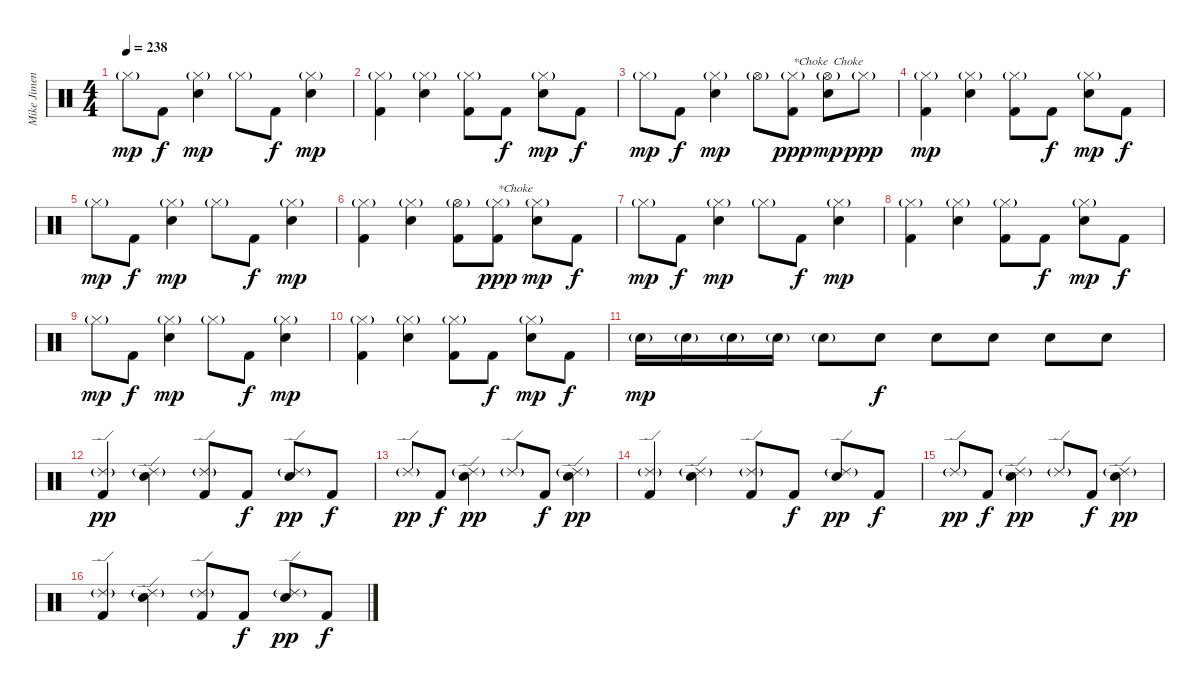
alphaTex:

\track ("Mike Jimenez" "Mike Jimen") {instrument percussion}
\staff {score}
\articulation defaults
\ts (4 4)
\tempo 238
\clef neutral
\ks c "Hi-Hat (closed)"{g}.8{dy mp} "Kick (hit) 2".8{dy f}
("Hi-Hat (closed)"{g} "Electric Snare (hit)").4{dy mp} "Hi-Hat (closed)"{g}.8 "Kick (hit) 2".8{dy f} ("Hi-Hat (closed)"{g} "Electric Snare (hit)").4{dy mp} |
("Hi-Hat (closed)"{g} "Kick (hit) 2").4 ("Hi-Hat (closed)"{g} "Electric Snare (hit)").4 ("Hi-Hat (closed)"{g} "Kick (hit) 2").8 "Kick (hit) 2".8{dy f} ("Hi-Hat (closed)"{g} "Electric Snare (hit)").8{dy mp} "Kick (hit) 2".8{dy f} |
"Hi-Hat (closed)"{g}.8{dy mp} "Kick (hit) 2".8{dy f} ("Hi-Hat (closed)"{g} "Electric Snare (hit)").4{dy mp} "Hi-Hat (open)"{g}.8 ("Hi-Hat (closed)"{g} "Kick (hit) 2").8{txt "*Choke  Choke" dy ppp} ("Hi-Hat (open)"{g} "Electric Snare (hit)").8{dy mp} "Hi-Hat (closed)"{g}.8{dy ppp} |
("Hi-Hat (closed)"{g} "Kick (hit) 2").4{dy mp} ("Hi-Hat (closed)"{g} "Electric Snare (hit)").4 ("Hi-Hat (closed)"{g} "Kick (hit) 2").8 "Kick (hit) 2".8{dy f} ("Hi-Hat (closed)"{g} "Electric Snare (hit)").8{dy mp} "Kick (hit) 2".8{dy f} |
"Hi-Hat (closed)"{g}.8{dy mp} "Kick (hit) 2".8{dy f} ("Hi-Hat (closed)"{g} "Electric Snare (hit)").4{dy mp} "Hi-Hat (closed)"{g}.8 "Kick (hit) 2".8{dy f} ("Hi-Hat (closed)"{g} "Electric Snare (hit)").4{dy mp} |
("Hi-Hat (closed)"{g} "Kick (hit) 2").4 ("Hi-Hat (closed)"{g} "Electric Snare (hit)").4 ("Hi-Hat (open)"{g} "Kick (hit) 2").8 ("Hi-Hat (closed)"{g} "Kick (hit) 2").8{txt "*Choke" dy ppp} ("Hi-Hat (closed)"{g} "Electric Snare (hit)").8{dy mp} "Kick (hit) 2".8{dy f} |
"Hi-Hat (closed)"{g}.8{dy mp} "Kick (hit) 2".8{dy f} ("Hi-Hat (closed)"{g} "Electric Snare (hit)").4{dy mp} "Hi-Hat (closed)"{g}.8 "Kick (hit) 2".8{dy f} ("Hi-Hat (closed)"{g} "Electric Snare (hit)").4{dy mp} |
("Hi-Hat (closed)"{g} "Kick (hit) 2").4 ("Hi-Hat (closed)"{g} "Electric Snare (hit)").4 ("Hi-Hat (closed)"{g} "Kick (hit) 2").8 "Kick (hit) 2".8{dy f} ("Hi-Hat (closed)"{g} "Electric Snare (hit)").8{dy mp} "Kick (hit) 2".8{dy f} |
"Hi-Hat (closed)"{g}.8{dy mp} "Kick (hit) 2".8{dy f} ("Hi-Hat (closed)"{g} "Electric Snare (hit)").4{dy mp} "Hi-Hat (closed)"{g}.8 "Kick (hit) 2".8{dy f} ("Hi-Hat (closed)"{g} "Electric Snare (hit)").4{dy mp} |
("Hi-Hat (closed)"{g} "Kick (hit) 2").4 ("Hi-Hat (closed)"{g} "Electric Snare (hit)").4 ("Hi-Hat (closed)"{g} "Kick (hit) 2").8 "Kick (hit) 2".8{dy f} ("Hi-Hat (closed)"{g} "Electric Snare (hit)").8{dy mp} "Kick (hit) 2".8{dy f} |
"Electric Snare (hit)"{g}.16{dy mp} "Electric Snare (hit)"{g}.16 "Electric Snare (hit)"{g}.16 "Electric Snare (hit)"{g}.16 "Electric Snare (hit)"{g}.8 "Electric Snare (hit)".8{dy f} "Electric Snare (hit)".8 "Electric Snare (hit)".8 "Electric Snare (hit)".8 "Electric Snare (hit)".8 |
("Ride (edge) 2"{g} "Kick (hit) 2").4{dy pp} ("Ride (edge) 2"{g} "Electric Snare (hit)").4 ("Ride (edge) 2"{g} "Kick (hit) 2").8 "Kick (hit) 2".8{dy f} ("Ride (edge) 2"{g} "Electric Snare (hit)").8{dy pp} "Kick (hit) 2".8{dy f} |
"Ride (edge) 2"{g}.8{dy pp} "Kick (hit) 2".8{dy f} ("Ride (edge) 2"{g} "Electric Snare (hit)").4{dy pp} "Ride (edge) 2"{g}.8 "Kick (hit) 2".8{dy f} ("Ride (edge) 2"{g} "Electric Snare (hit)").4{dy pp} |
("Ride (edge) 2"{g} "Kick (hit) 2").4 ("Ride (edge) 2"{g} "Electric Snare (hit)").4 ("Ride (edge) 2"{g} "Kick (hit) 2").8 "Kick (hit) 2".8{dy f} ("Ride (edge) 2"{g} "Electric Snare (hit)").8{dy pp} "Kick (hit) 2".8{dy f} |
"Ride (edge) 2"{g}.8{dy pp} "Kick (hit) 2".8{dy f} ("Ride (edge) 2"{g} "Electric Snare (hit)").4{dy pp} "Ride (edge) 2"{g}.8 "Kick (hit) 2".8{dy f} ("Ride (edge) 2"{g} "Electric Snare (hit)").4{dy pp} |
("Ride (edge) 2"{g} "Kick (hit) 2").4 ("Ride (edge) 2"{g} "Electric Snare (hit)").4 ("Ride (edge) 2"{g} "Kick (hit) 2").8 "Kick (hit) 2".8{dy f} ("Ride (edge) 2"{g} "Electric Snare (hit)").8{dy pp} "Kick (hit) 2".8{dy f}
